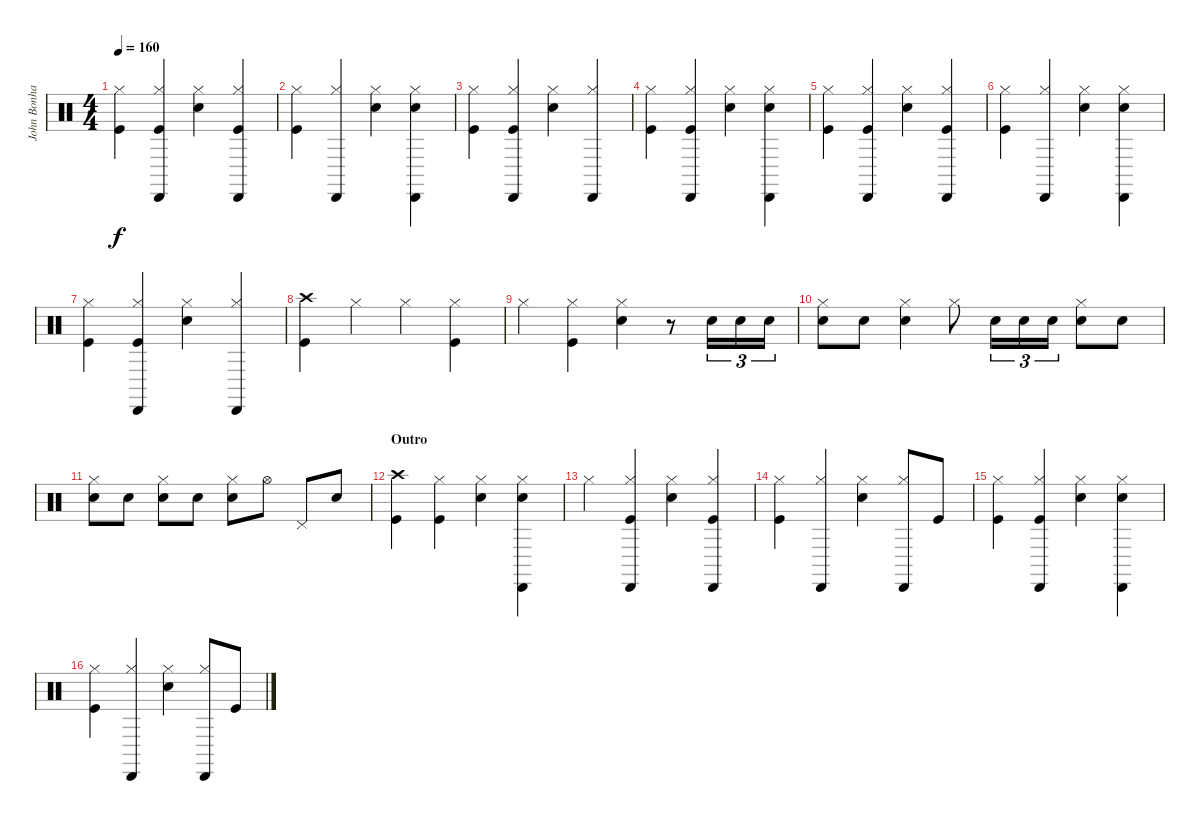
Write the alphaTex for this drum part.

\track ("John Bonham - Drums" "John Bonha") {instrument percussion}
\staff {score}
\articulation defaults
\ts (4 4)
\tempo 160
\clef neutral
\ks c
("Hi-Hat (closed)" "Kick (hit)").4{dy f} ("Hi-Hat (closed)" "Kick (hit)" "Cabasa (hit)").4 ("Hi-Hat (closed)" "Snare (hit) 2").4 ("Hi-Hat (closed)" "Kick (hit)" "Cabasa (hit)").4 |
("Kick (hit)" "Hi-Hat (closed)").4 ("Hi-Hat (closed)" "Cabasa (hit)").4 ("Snare (hit) 2" "Hi-Hat (closed)").4 ("Hi-Hat (closed)" "Snare (hit) 2" "Cabasa (hit)").4 |
("Kick (hit)" "Hi-Hat (closed)").4 ("Kick (hit)" "Hi-Hat (closed)" "Cabasa (hit)").4 ("Snare (hit) 2" "Hi-Hat (closed)").4 ("Cabasa (hit)" "Hi-Hat (closed)").4 |
("Kick (hit)" "Hi-Hat (closed)").4 ("Kick (hit)" "Hi-Hat (closed)" "Cabasa (hit)").4 ("Snare (hit) 2" "Hi-Hat (closed)").4 ("Hi-Hat (closed)" "Snare (hit) 2" "Cabasa (hit)").4 |
("Kick (hit)" "Hi-Hat (closed)").4 ("Kick (hit)" "Hi-Hat (closed)" "Cabasa (hit)").4 ("Snare (hit) 2" "Hi-Hat (closed)").4 ("Kick (hit)" "Hi-Hat (closed)" "Cabasa (hit)").4 |
("Kick (hit)" "Hi-Hat (closed)").4 ("Cabasa (hit)" "Hi-Hat (closed)").4 ("Snare (hit) 2" "Hi-Hat (closed)").4 ("Snare (hit) 2" "Hi-Hat (closed)" "Cabasa (hit)").4 |
("Hi-Hat (closed)" "Kick (hit)").4 ("Hi-Hat (closed)" "Kick (hit)" "Cabasa (hit)").4 ("Hi-Hat (closed)" "Snare (hit) 2").4 ("Hi-Hat (closed)" "Cabasa (hit)").4 |
("Kick (hit)" "Crash high (hit)").4 "Hi-Hat (closed)".4 "Hi-Hat (closed)".4 ("Hi-Hat (closed)" "Kick (hit)").4 |
"Hi-Hat (closed)".4 ("Kick (hit)" "Hi-Hat (closed)").4 ("Snare (hit) 2" "Hi-Hat (closed)").4 r.8 "Snare (hit) 2".16{tu (3 2)} "Snare (hit) 2".16{tu (3 2)} "Snare (hit) 2".16{tu (3 2)} |
("Hi-Hat (closed)" "Snare (hit) 2").8 "Snare (hit) 2".8 ("Hi-Hat (closed)" "Snare (hit) 2").4 "Hi-Hat (closed)".8 "Snare (hit) 2".16{tu (3 2)} "Snare (hit) 2".16{tu (3 2)} "Snare (hit) 2".16{tu (3 2)} ("Hi-Hat (closed)" "Snare (hit) 2").8 "Snare (hit) 2".8 |
("Hi-Hat (closed)" "Snare (hit) 2").8 "Snare (hit) 2".8 ("Hi-Hat (closed)" "Snare (hit) 2").8 "Snare (hit) 2".8 ("Hi-Hat (closed)" "Snare (hit) 2").8 "Hi-Hat (open)".8 "Pedal Hi-Hat (hit)".8 "Snare (hit) 2".8 |
\section ("" "Outro")
("Kick (hit)" "Crash high (hit)").4 ("Hi-Hat (closed)" "Kick (hit)").4 ("Hi-Hat (closed)" "Snare (hit) 2").4 ("Snare (hit) 2" "Hi-Hat (closed)" "Cabasa (hit)").4 |
"Hi-Hat (closed)".4 ("Kick (hit)" "Cabasa (hit)" "Hi-Hat (closed)").4 ("Snare (hit) 2" "Hi-Hat (closed)").4 ("Kick (hit)" "Cabasa (hit)" "Hi-Hat (closed)").4 |
("Kick (hit)" "Hi-Hat (closed)").4 ("Hi-Hat (closed)" "Cabasa (hit)").4 ("Snare (hit) 2" "Hi-Hat (closed)").4 ("Hi-Hat (closed)" "Cabasa (hit)").8 "Kick (hit)".8 |
("Hi-Hat (closed)" "Kick (hit)").4 ("Hi-Hat (closed)" "Kick (hit)" "Cabasa (hit)").4 ("Hi-Hat (closed)" "Snare (hit) 2").4 ("Hi-Hat (closed)" "Snare (hit) 2" "Cabasa (hit)").4 |
("Hi-Hat (closed)" "Kick (hit)").4 ("Hi-Hat (closed)" "Cabasa (hit)").4 ("Snare (hit) 2" "Hi-Hat (closed)").4 ("Hi-Hat (closed)" "Cabasa (hit)").8 "Kick (hit)".8
